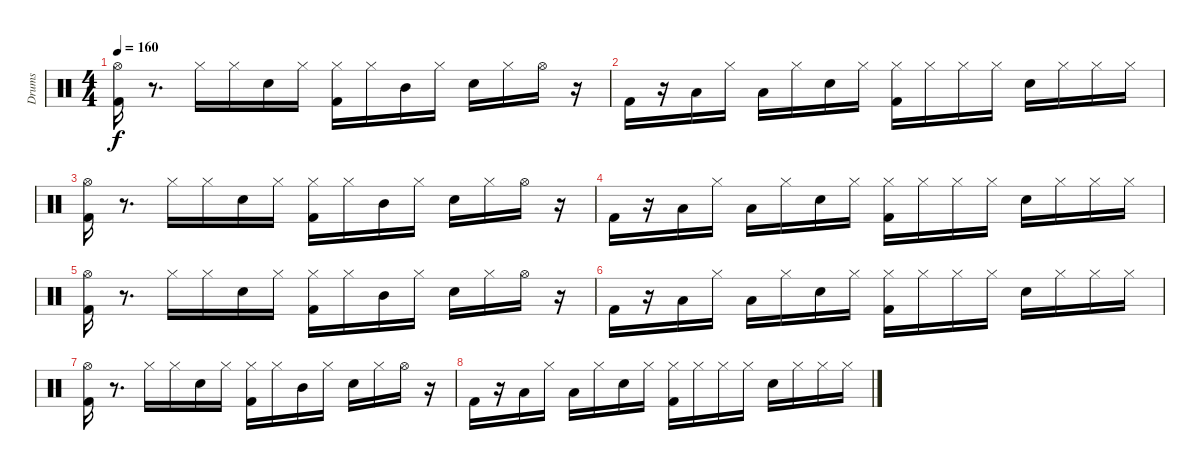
\track ("Drums" "Drums") {instrument percussion}
\staff {score}
\articulation defaults
\ts (4 4)
\tempo 160
\clef neutral
\ks c
("Hi-Hat (open)" "Kick (hit) 2").16{dy f} r.8{d} "Hi-Hat (closed)".16 "Hi-Hat (closed)".16 "Electric Snare (hit)".16 "Hi-Hat (closed)".16 ("Hi-Hat (closed)" "Kick (hit) 2").16 "Hi-Hat (closed)".16 "Mid Tom (hit)".16 "Hi-Hat (closed)".16 "Electric Snare (hit)".16 "Hi-Hat (closed)".16 "Hi-Hat (open)".16 r.16 |
"Kick (hit) 2".16 r.16 "Low Tom (hit)".16 "Hi-Hat (closed)".16 "Low Tom (hit)".16 "Hi-Hat (closed)".16 "Electric Snare (hit)".16 "Hi-Hat (closed)".16 ("Hi-Hat (closed)" "Kick (hit) 2").16 "Hi-Hat (closed)".16 "Hi-Hat (closed)".16 "Hi-Hat (closed)".16 "Electric Snare (hit)".16 "Hi-Hat (closed)".16 "Hi-Hat (closed)".16 "Hi-Hat (closed)".16 |
("Hi-Hat (open)" "Kick (hit) 2").16 r.8{d} "Hi-Hat (closed)".16 "Hi-Hat (closed)".16 "Electric Snare (hit)".16 "Hi-Hat (closed)".16 ("Hi-Hat (closed)" "Kick (hit) 2").16 "Hi-Hat (closed)".16 "Mid Tom (hit)".16 "Hi-Hat (closed)".16 "Electric Snare (hit)".16 "Hi-Hat (closed)".16 "Hi-Hat (open)".16 r.16 |
"Kick (hit) 2".16 r.16 "Low Tom (hit)".16 "Hi-Hat (closed)".16 "Low Tom (hit)".16 "Hi-Hat (closed)".16 "Electric Snare (hit)".16 "Hi-Hat (closed)".16 ("Hi-Hat (closed)" "Kick (hit) 2").16 "Hi-Hat (closed)".16 "Hi-Hat (closed)".16 "Hi-Hat (closed)".16 "Electric Snare (hit)".16 "Hi-Hat (closed)".16 "Hi-Hat (closed)".16 "Hi-Hat (closed)".16 |
("Hi-Hat (open)" "Kick (hit) 2").16 r.8{d} "Hi-Hat (closed)".16 "Hi-Hat (closed)".16 "Electric Snare (hit)".16 "Hi-Hat (closed)".16 ("Hi-Hat (closed)" "Kick (hit) 2").16 "Hi-Hat (closed)".16 "Mid Tom (hit)".16 "Hi-Hat (closed)".16 "Electric Snare (hit)".16 "Hi-Hat (closed)".16 "Hi-Hat (open)".16 r.16 |
"Kick (hit) 2".16 r.16 "Low Tom (hit)".16 "Hi-Hat (closed)".16 "Low Tom (hit)".16 "Hi-Hat (closed)".16 "Electric Snare (hit)".16 "Hi-Hat (closed)".16 ("Hi-Hat (closed)" "Kick (hit) 2").16 "Hi-Hat (closed)".16 "Hi-Hat (closed)".16 "Hi-Hat (closed)".16 "Electric Snare (hit)".16 "Hi-Hat (closed)".16 "Hi-Hat (closed)".16 "Hi-Hat (closed)".16 |
("Hi-Hat (open)" "Kick (hit) 2").16 r.8{d} "Hi-Hat (closed)".16 "Hi-Hat (closed)".16 "Electric Snare (hit)".16 "Hi-Hat (closed)".16 ("Hi-Hat (closed)" "Kick (hit) 2").16 "Hi-Hat (closed)".16 "Mid Tom (hit)".16 "Hi-Hat (closed)".16 "Electric Snare (hit)".16 "Hi-Hat (closed)".16 "Hi-Hat (open)".16 r.16 |
"Kick (hit) 2".16 r.16 "Low Tom (hit)".16 "Hi-Hat (closed)".16 "Low Tom (hit)".16 "Hi-Hat (closed)".16 "Electric Snare (hit)".16 "Hi-Hat (closed)".16 ("Hi-Hat (closed)" "Kick (hit) 2").16 "Hi-Hat (closed)".16 "Hi-Hat (closed)".16 "Hi-Hat (closed)".16 "Electric Snare (hit)".16 "Hi-Hat (closed)".16 "Hi-Hat (closed)".16 "Hi-Hat (closed)".16
